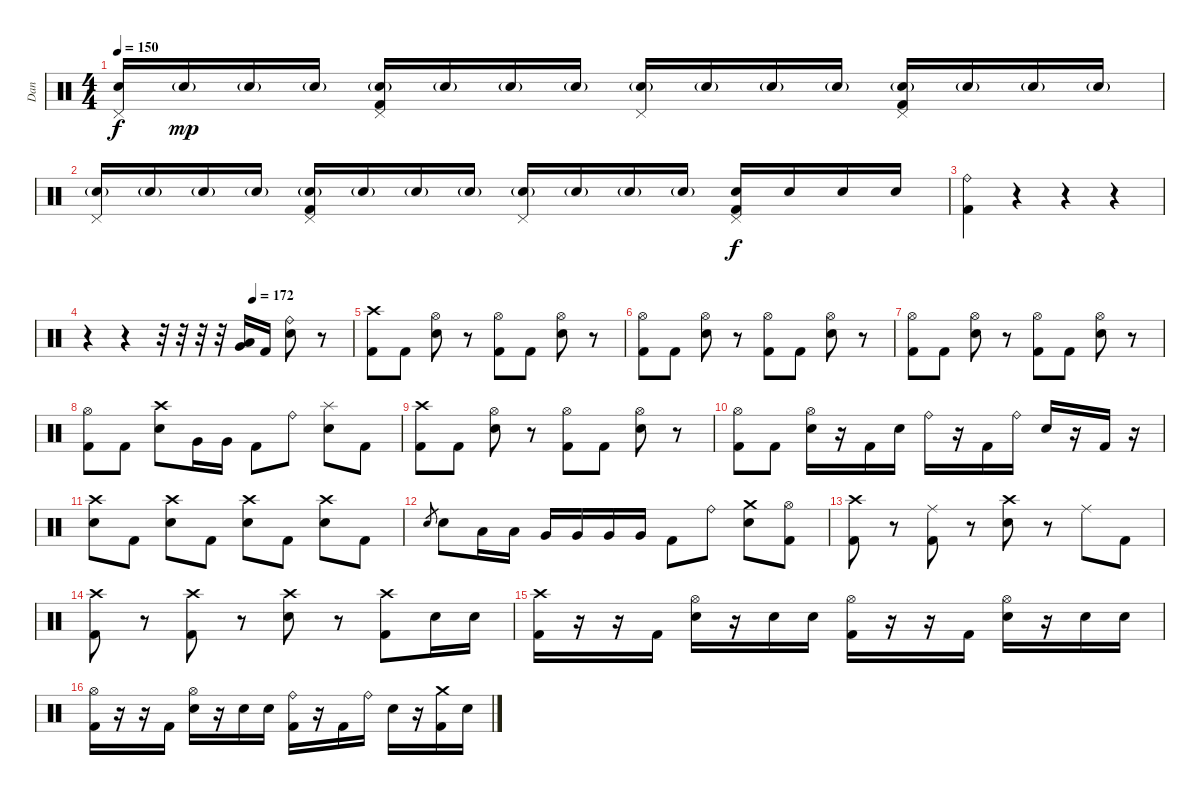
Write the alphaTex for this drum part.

\track ("Dan" "Dan") {instrument percussion}
\staff {score}
\articulation defaults
\ts (4 4)
\tempo 150
\clef neutral
\ks c
("Pedal Hi-Hat (hit)" "Electric Snare (hit)").16{dy f volume 12} "Electric Snare (hit)"{g}.16{dy mp} "Electric Snare (hit)"{g}.16 "Electric Snare (hit)"{g}.16 ("Pedal Hi-Hat (hit)" "Electric Snare (hit)"{g} "Kick (hit) 2").16 "Electric Snare (hit)"{g}.16 "Electric Snare (hit)"{g}.16 "Electric Snare (hit)"{g}.16 ("Pedal Hi-Hat (hit)" "Electric Snare (hit)"{g}).16 "Electric Snare (hit)"{g}.16 "Electric Snare (hit)"{g}.16 "Electric Snare (hit)"{g}.16 ("Pedal Hi-Hat (hit)" "Electric Snare (hit)"{g} "Kick (hit) 2").16 "Electric Snare (hit)"{g}.16 "Electric Snare (hit)"{g}.16 "Electric Snare (hit)"{g}.16 |
("Pedal Hi-Hat (hit)" "Electric Snare (hit)"{g}).16{volume 16} "Electric Snare (hit)"{g}.16 "Electric Snare (hit)"{g}.16 "Electric Snare (hit)"{g}.16 ("Pedal Hi-Hat (hit)" "Electric Snare (hit)"{g} "Kick (hit) 2").16 "Electric Snare (hit)"{g}.16 "Electric Snare (hit)"{g}.16 "Electric Snare (hit)"{g}.16 ("Pedal Hi-Hat (hit)" "Electric Snare (hit)"{g}).16 "Electric Snare (hit)"{g}.16 "Electric Snare (hit)"{g}.16 "Electric Snare (hit)"{g}.16 ("Pedal Hi-Hat (hit)" "Electric Snare (hit)" "Kick (hit) 2").16{dy f} "Electric Snare (hit)".16 "Electric Snare (hit)".16 "Electric Snare (hit)".16 |
("Ride (bell)" "Kick (hit) 2").4 r.4 r.4 r.4 |
\tempo (172 0.625)
r.4 r.4 r.32 r.32 r.32 r.32 ("Very Low Tom (hit)" "Low Tom (hit)").16{volume 12} "Kick (hit) 2".16 ("Ride (bell)" "Electric Snare (hit)").8 r.8 |
("Crash high (hit)" "Kick (hit) 2").8 "Kick (hit) 2".8 ("Hi-Hat (open)" "Electric Snare (hit)").8 r.8 ("Hi-Hat (open)" "Kick (hit) 2").8 "Kick (hit) 2".8 ("Hi-Hat (open)" "Electric Snare (hit)").8 r.8 |
("Hi-Hat (open)" "Kick (hit) 2").8 "Kick (hit) 2".8 ("Hi-Hat (open)" "Electric Snare (hit)").8 r.8 ("Hi-Hat (open)" "Kick (hit) 2").8 "Kick (hit) 2".8 ("Hi-Hat (open)" "Electric Snare (hit)").8 r.8 |
("Hi-Hat (open)" "Kick (hit) 2").8 "Kick (hit) 2".8 ("Hi-Hat (open)" "Electric Snare (hit)").8 r.8 ("Hi-Hat (open)" "Kick (hit) 2").8 "Kick (hit) 2".8 ("Hi-Hat (open)" "Electric Snare (hit)").8 r.8 |
("Hi-Hat (open)" "Kick (hit) 2").8 "Kick (hit) 2".8 ("Crash high (hit)" "Electric Snare (hit)").8 "Very Low Tom (hit)".16 "Very Low Tom (hit)".16 "Kick (hit) 2".8 "Ride (bell)".8 ("Splash (hit)" "Electric Snare (hit)").8 "Kick (hit) 2".8 |
("Crash high (hit)" "Kick (hit) 2").8 "Kick (hit) 2".8 ("Hi-Hat (open)" "Electric Snare (hit)").8 r.8 ("Hi-Hat (open)" "Kick (hit) 2").8 "Kick (hit) 2".8 ("Hi-Hat (open)" "Electric Snare (hit)").8 r.8 |
("Hi-Hat (open)" "Kick (hit) 2").8 "Kick (hit) 2".8 ("Hi-Hat (open)" "Electric Snare (hit)").16 r.16 "Kick (hit) 2".16 "Electric Snare (hit)".16 "Ride (bell)".16 r.16 "Kick (hit) 2".16 "Ride (bell)".16 "Electric Snare (hit)".16 r.16 "Kick (hit) 2".16 r.16 |
("Crash high (hit)" "Electric Snare (hit)").8 "Kick (hit) 2".8 ("Crash high (hit)" "Electric Snare (hit)").8 "Kick (hit) 2".8 ("Crash high (hit)" "Electric Snare (hit)").8 "Kick (hit) 2".8 ("Crash high (hit)" "Electric Snare (hit)").8 "Kick (hit) 2".8 |
"Electric Snare (hit)".8{gr} "Electric Snare (hit)".8 "Low Tom (hit)".16 "Low Tom (hit)".16 "Very Low Tom (hit)".16 "Very Low Tom (hit)".16 "Very Low Tom (hit)".16 "Very Low Tom (hit)".16 "Kick (hit) 2".8 "Ride (bell)".8 ("Crash medium (hit)" "Electric Snare (hit)").8 ("Hi-Hat (open)" "Kick (hit) 2").8 |
("Crash high (hit)" "Kick (hit) 2").8 r.8 ("Ride (middle)" "Kick (hit) 2").8 r.8 ("Crash high (hit)" "Electric Snare (hit)").8 r.8 "Ride (middle)".8 "Kick (hit) 2".8 |
("Crash high (hit)" "Kick (hit) 2").8 r.8 ("Crash high (hit)" "Kick (hit) 2").8 r.8 ("Crash high (hit)" "Electric Snare (hit)").8 r.8 ("Crash high (hit)" "Kick (hit) 2").8 "Electric Snare (hit)".16 "Electric Snare (hit)".16 |
("Crash high (hit)" "Kick (hit) 2").16 r.16 r.16 "Kick (hit) 2".16 ("Hi-Hat (open)" "Electric Snare (hit)").16 r.16 "Electric Snare (hit)".16 "Electric Snare (hit)".16 ("Hi-Hat (open)" "Kick (hit) 2").16 r.16 r.16 "Kick (hit) 2".16 ("Hi-Hat (open)" "Electric Snare (hit)").16 r.16 "Electric Snare (hit)".16 "Electric Snare (hit)".16 |
("Hi-Hat (open)" "Kick (hit) 2").16 r.16 r.16 "Kick (hit) 2".16 ("Hi-Hat (open)" "Electric Snare (hit)").16 r.16 "Electric Snare (hit)".16 "Electric Snare (hit)".16 ("Ride (bell)" "Kick (hit) 2").16 r.16 "Kick (hit) 2".16 "Ride (bell)".16 "Electric Snare (hit)".16 r.16 ("Crash medium (hit)" "Kick (hit) 2").16 "Electric Snare (hit)".16
